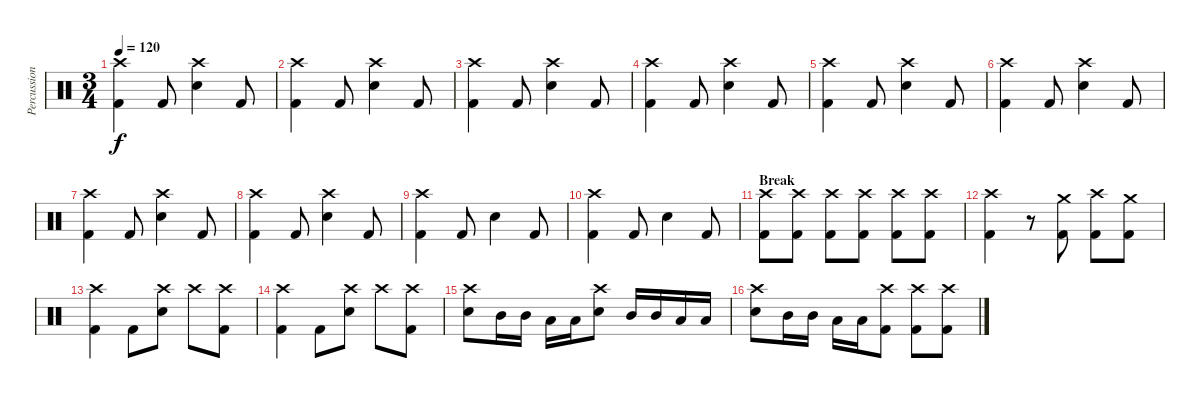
\track ("Percussion" "Percussion") {instrument percussion}
\staff {score}
\articulation defaults
\ts (3 4)
\tempo 120
\clef neutral
\ks c
("Crash high (hit)" "Kick (hit) 2").4{dy f} "Kick (hit) 2".8 ("Crash high (hit)" "Snare (hit) 2").4 "Kick (hit) 2".8 |
("Crash high (hit)" "Kick (hit) 2").4 "Kick (hit) 2".8 ("Crash high (hit)" "Snare (hit) 2").4 "Kick (hit) 2".8 |
("Crash high (hit)" "Kick (hit) 2").4 "Kick (hit) 2".8 ("Crash high (hit)" "Snare (hit) 2").4 "Kick (hit) 2".8 |
("Crash high (hit)" "Kick (hit) 2").4 "Kick (hit) 2".8 ("Crash high (hit)" "Snare (hit) 2").4 "Kick (hit) 2".8 |
("Crash high (hit)" "Kick (hit) 2").4 "Kick (hit) 2".8 ("Crash high (hit)" "Snare (hit) 2").4 "Kick (hit) 2".8 |
("Crash high (hit)" "Kick (hit) 2").4 "Kick (hit) 2".8 ("Crash high (hit)" "Snare (hit) 2").4 "Kick (hit) 2".8 |
("Crash high (hit)" "Kick (hit) 2").4 "Kick (hit) 2".8 ("Crash high (hit)" "Snare (hit) 2").4 "Kick (hit) 2".8 |
("Crash high (hit)" "Kick (hit) 2").4 "Kick (hit) 2".8 ("Crash high (hit)" "Snare (hit) 2").4 "Kick (hit) 2".8 |
("Crash high (hit)" "Kick (hit) 2").4 "Kick (hit) 2".8 "Snare (hit) 2".4 "Kick (hit) 2".8 |
("Crash high (hit)" "Kick (hit) 2").4 "Kick (hit) 2".8 "Snare (hit) 2".4 "Kick (hit) 2".8 |
\section ("" "Break")
("Crash high (hit)" "Kick (hit) 2").8 ("Crash high (hit)" "Kick (hit) 2").8 ("Crash high (hit)" "Kick (hit) 2").8 ("Crash high (hit)" "Kick (hit) 2").8 ("Crash high (hit)" "Kick (hit) 2").8 ("Crash high (hit)" "Kick (hit) 2").8 |
("Crash high (hit)" "Kick (hit) 2").4 r.8 ("Crash medium (hit)" "Kick (hit) 2").8 ("Crash high (hit)" "Kick (hit) 2").8 ("Crash medium (hit)" "Kick (hit) 2").8 |
("Crash high (hit)" "Kick (hit) 2").4 "Kick (hit) 2".8 ("Crash high (hit)" "Snare (hit) 2").8 "Crash high (hit)".8 ("Crash high (hit)" "Kick (hit) 2").8 |
("Crash high (hit)" "Kick (hit) 2").4 "Kick (hit) 2".8 ("Crash high (hit)" "Snare (hit) 2").8 "Crash high (hit)".8 ("Crash high (hit)" "Kick (hit) 2").8 |
("Crash high (hit)" "Snare (hit) 2").8 "Mid Tom (hit)".16 "Mid Tom (hit)".16 "Low Tom (hit)".16 "Low Tom (hit)".16 ("Crash high (hit)" "Snare (hit) 2").8 "Mid Tom (hit)".16 "Mid Tom (hit)".16 "Low Tom (hit)".16 "Low Tom (hit)".16 |
("Crash high (hit)" "Snare (hit) 2").8 "Mid Tom (hit)".16 "Mid Tom (hit)".16 "Low Tom (hit)".16 "Low Tom (hit)".16 ("Crash high (hit)" "Kick (hit) 2").8 ("Crash high (hit)" "Kick (hit) 2").8 ("Crash high (hit)" "Kick (hit) 2").8
